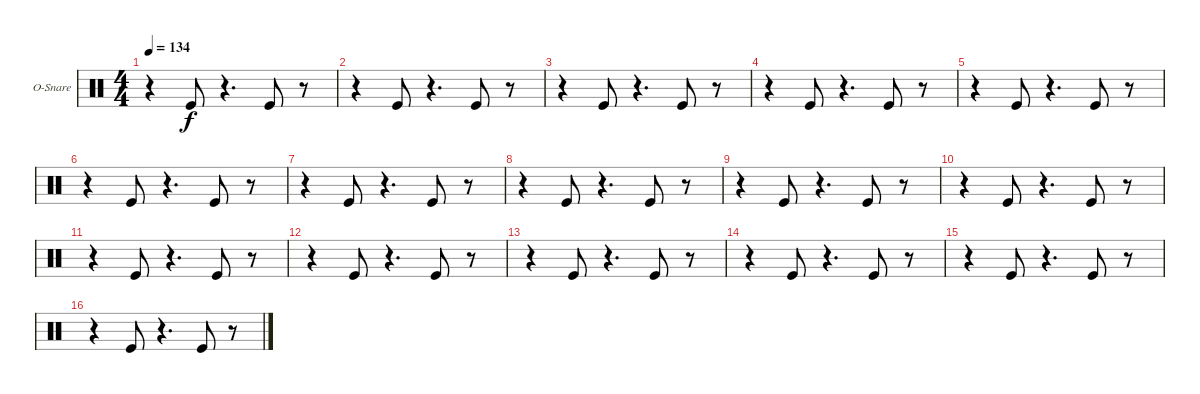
\bracketExtendMode groupsimilarinstruments
\firstSystemTrackNameOrientation horizontal
\otherSystemsTrackNameOrientation horizontal
\track ("Open Snare" "O-Snare") {instrument percussion}
\staff {score}
\articulation defaults
\ts (4 4)
\tempo 134
\clef neutral
\scale
0.25
\ks c
r.4{dy f} "Kick (hit)".8 r.4{d} "Kick (hit)".8 r.8 |
\scale
0.25 r.4 "Kick (hit)".8 r.4{d} "Kick (hit)".8 r.8 |
\scale
0.25 r.4 "Kick (hit)".8 r.4{d} "Kick (hit)".8 r.8 |
\scale
0.25 r.4 "Kick (hit)".8 r.4{d} "Kick (hit)".8 r.8 |
\scale
0.25 r.4 "Kick (hit)".8 r.4{d} "Kick (hit)".8 r.8 |
\scale
0.25 r.4 "Kick (hit)".8 r.4{d} "Kick (hit)".8 r.8 |
\scale
0.25 r.4 "Kick (hit)".8 r.4{d} "Kick (hit)".8 r.8 |
r.4 "Kick (hit)".8 r.4{d} "Kick (hit)".8 r.8 |
r.4 "Kick (hit)".8 r.4{d} "Kick (hit)".8 r.8 |
r.4 "Kick (hit)".8 r.4{d} "Kick (hit)".8 r.8 |
r.4 "Kick (hit)".8 r.4{d} "Kick (hit)".8 r.8 |
r.4 "Kick (hit)".8 r.4{d} "Kick (hit)".8 r.8 |
r.4 "Kick (hit)".8 r.4{d} "Kick (hit)".8 r.8 |
\scale
0.25 r.4 "Kick (hit)".8 r.4{d} "Kick (hit)".8 r.8 |
\scale
0.25 r.4 "Kick (hit)".8 r.4{d} "Kick (hit)".8 r.8 |
r.4 "Kick (hit)".8 r.4{d} "Kick (hit)".8 r.8
